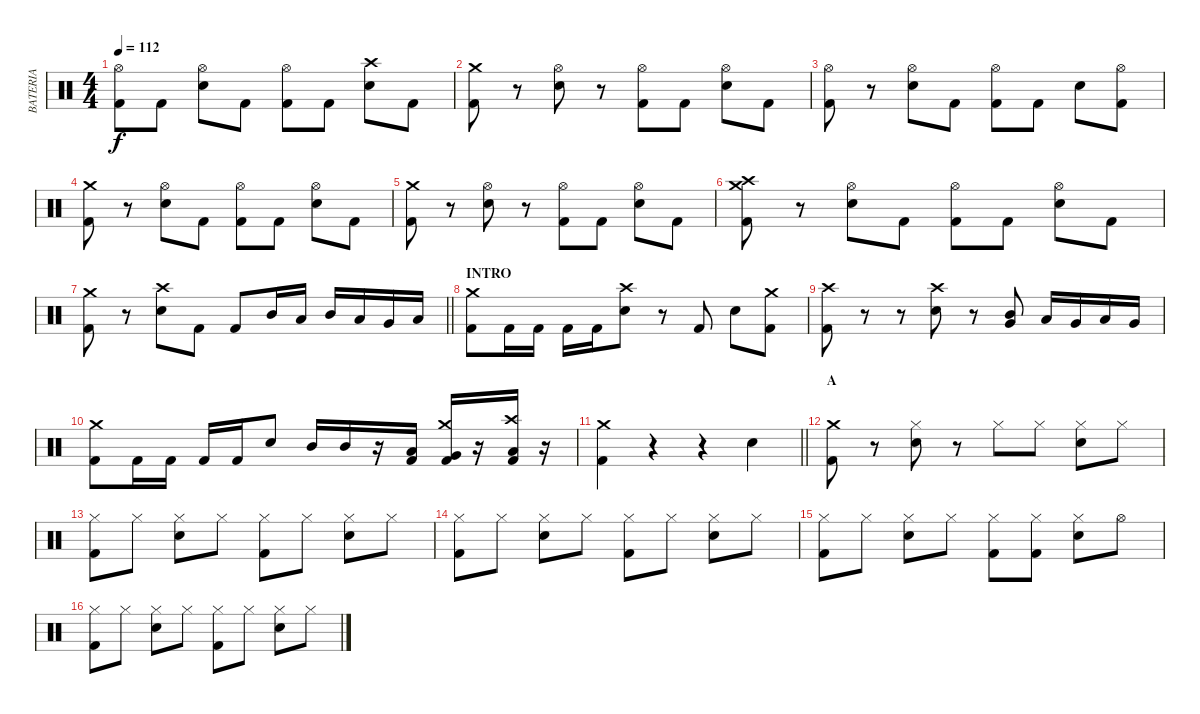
\track ("BATERIA" "BATERIA") {instrument percussion}
\staff {score}
\articulation defaults
\ts (4 4)
\tempo 112
\clef neutral
\ks c
("Kick (hit) 2" "Hi-Hat (open)").8{dy f} "Kick (hit) 2".8 ("Hi-Hat (open)" "Electric Snare (hit)").8 "Kick (hit) 2".8 ("Kick (hit) 2" "Hi-Hat (open)").8 "Kick (hit) 2".8 ("Electric Snare (hit)" "Crash high (hit)").8 "Kick (hit) 2".8 |
("Kick (hit) 2" "Crash medium (hit)").8 r.8 ("Hi-Hat (open)" "Electric Snare (hit)").8 r.8 ("Kick (hit) 2" "Hi-Hat (open)").8 "Kick (hit) 2".8 ("Hi-Hat (open)" "Electric Snare (hit)").8 "Kick (hit) 2".8 |
("Kick (hit) 2" "Hi-Hat (open)").8 r.8 ("Hi-Hat (open)" "Electric Snare (hit)").8 "Kick (hit) 2".8 ("Kick (hit) 2" "Hi-Hat (open)").8 "Kick (hit) 2".8 "Electric Snare (hit)".8 ("Kick (hit) 2" "Hi-Hat (open)").8 |
("Kick (hit) 2" "Crash medium (hit)").8 r.8 ("Hi-Hat (open)" "Electric Snare (hit)").8 "Kick (hit) 2".8 ("Kick (hit) 2" "Hi-Hat (open)").8 "Kick (hit) 2".8 ("Hi-Hat (open)" "Electric Snare (hit)").8 "Kick (hit) 2".8 |
("Kick (hit) 2" "Crash medium (hit)").8 r.8 ("Hi-Hat (open)" "Electric Snare (hit)").8 r.8 ("Kick (hit) 2" "Hi-Hat (open)").8 "Kick (hit) 2".8 ("Hi-Hat (open)" "Electric Snare (hit)").8 "Kick (hit) 2".8 |
("Kick (hit) 2" "Crash medium (hit)" "Crash high (hit)").8 r.8 ("Hi-Hat (open)" "Electric Snare (hit)").8 "Kick (hit) 2".8 ("Kick (hit) 2" "Hi-Hat (open)").8 "Kick (hit) 2".8 ("Hi-Hat (open)" "Electric Snare (hit)").8 "Kick (hit) 2".8 |
\barLineRight lightlight
("Kick (hit) 2" "Crash medium (hit)").8 r.8 ("Electric Snare (hit)" "Crash high (hit)").8 "Kick (hit) 2".8 "Kick (hit) 2".8 "Mid Tom (hit)".16 "Low Tom (hit)".16 "Mid Tom (hit)".16 "Low Tom (hit)".16 "Very Low Tom (hit)".16 "Low Floor Tom (hit)".16 |
\section ("" "INTRO")
("Kick (hit) 2" "Crash medium (hit)").8 "Kick (hit) 2".16 "Kick (hit) 2".16 "Kick (hit) 2".16 "Kick (hit) 2".16 ("Electric Snare (hit)" "Crash high (hit)").8 r.8 "Kick (hit) 2".8 "Electric Snare (hit)".8 ("Kick (hit) 2" "Crash medium (hit)").8 |
("Kick (hit) 2" "Crash high (hit)").8 r.8 r.8 ("Electric Snare (hit)" "Crash high (hit)").8 r.8 ("Mid Tom (hit)" "Very Low Tom (hit)").8 "Low Tom (hit)".16 "Very Low Tom (hit)".16 "Low Floor Tom (hit)".16 "Very Low Tom (hit)".16 |
("Kick (hit) 2" "Crash medium (hit)").8 "Kick (hit) 2".16 "Kick (hit) 2".16 "Kick (hit) 2".16 "Kick (hit) 2".16 "Electric Snare (hit)".8 "Mid Tom (hit)".16 "Mid Tom (hit)".16 r.16 ("Kick (hit) 2" "Low Tom (hit)").16 ("Kick (hit) 2" "Very Low Tom (hit)" "Crash medium (hit)").16 r.16 ("Kick (hit) 2" "Low Floor Tom (hit)" "Crash high (hit)").16 r.16 |
\barLineRight lightlight
("Kick (hit) 2" "Crash medium (hit)").4 r.4 r.4 "Electric Snare (hit)".4 |
\section ("" "A")
("Kick (hit) 2" "Crash medium (hit)").8 r.8 ("Hi-Hat (closed)" "Electric Snare (hit)").8 r.8 "Hi-Hat (closed)".8 "Hi-Hat (closed)".8 ("Hi-Hat (closed)" "Electric Snare (hit)").8 "Hi-Hat (closed)".8 |
("Kick (hit) 2" "Hi-Hat (closed)").8 "Hi-Hat (closed)".8 ("Hi-Hat (closed)" "Electric Snare (hit)").8 "Hi-Hat (closed)".8 ("Kick (hit) 2" "Hi-Hat (closed)").8 "Hi-Hat (closed)".8 ("Hi-Hat (closed)" "Electric Snare (hit)").8 "Hi-Hat (closed)".8 |
("Kick (hit) 2" "Hi-Hat (closed)").8 "Hi-Hat (closed)".8 ("Hi-Hat (closed)" "Electric Snare (hit)").8 "Hi-Hat (closed)".8 ("Kick (hit) 2" "Hi-Hat (closed)").8 "Hi-Hat (closed)".8 ("Hi-Hat (closed)" "Electric Snare (hit)").8 "Hi-Hat (closed)".8 |
("Kick (hit) 2" "Hi-Hat (closed)").8 "Hi-Hat (closed)".8 ("Hi-Hat (closed)" "Electric Snare (hit)").8 "Hi-Hat (closed)".8 ("Kick (hit) 2" "Hi-Hat (closed)").8 ("Kick (hit) 2" "Hi-Hat (closed)").8 ("Hi-Hat (closed)" "Electric Snare (hit)").8 "Hi-Hat (open)".8 |
("Kick (hit) 2" "Hi-Hat (closed)").8 "Hi-Hat (closed)".8 ("Hi-Hat (closed)" "Electric Snare (hit)").8 "Hi-Hat (closed)".8 ("Kick (hit) 2" "Hi-Hat (closed)").8 "Hi-Hat (closed)".8 ("Hi-Hat (closed)" "Electric Snare (hit)").8 "Hi-Hat (closed)".8
